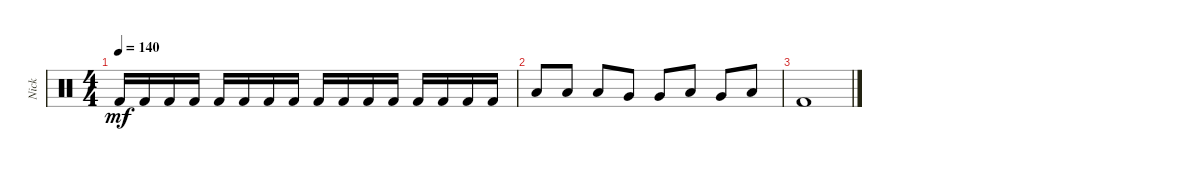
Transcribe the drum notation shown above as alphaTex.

\track ("Nick " "Nick ") {instrument percussion}
\staff {score}
\articulation defaults
\ts (4 4)
\tempo 140
\clef neutral
\ks c "Kick (hit) 2".16{dy mf} "Kick (hit) 2".16 "Kick (hit) 2".16 "Kick (hit) 2".16 "Kick (hit) 2".16 "Kick (hit) 2".16 "Kick (hit) 2".16 "Kick (hit) 2".16 "Kick (hit) 2".16 "Kick (hit) 2".16 "Kick (hit) 2".16 "Kick (hit) 2".16 "Kick (hit) 2".16 "Kick (hit) 2".16 "Kick (hit) 2".16 "Kick (hit) 2".16
|
"Low Tom (hit)".8 "Low Floor Tom (hit)".8 "Low Floor Tom (hit)".8 "Very Low Tom (hit)".8 "Very Low Tom (hit)".8 "Low Floor Tom (hit)".8 "Very Low Tom (hit)".8 "Low Floor Tom (hit)".8 |
"Kick (hit) 2".1
